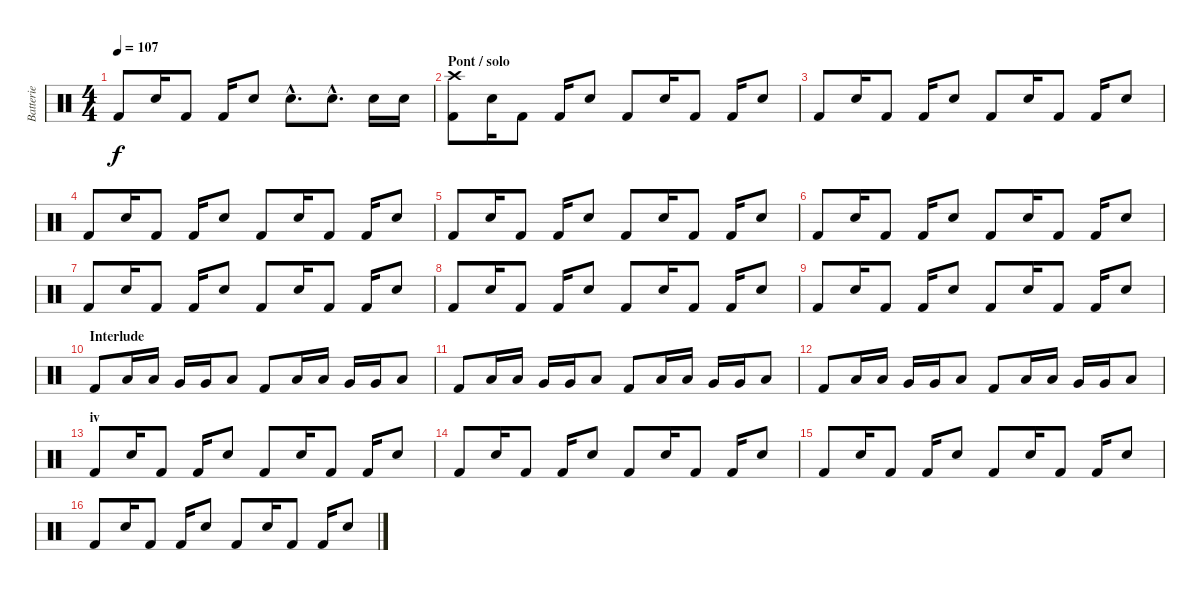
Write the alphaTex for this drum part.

\track ("Batterie" "Batterie") {instrument percussion}
\staff {score}
\articulation defaults
\ts (4 4)
\tempo 107
\clef neutral
\ks c "Kick (hit) 2".8{dy f} "Electric Snare (hit)".16 "Kick (hit) 2".8 "Kick (hit) 2".16 "Electric Snare (hit)".8 "Electric Snare (hit)"{hac}.8{d} "Electric Snare (hit)"{hac}.8{d} "Electric Snare (hit)".16 "Electric Snare (hit)".16
|
\section ("" "Pont / solo")
("Crash high (hit)" "Kick (hit) 2").8 "Electric Snare (hit)".16 "Kick (hit) 2".8 "Kick (hit) 2".16 "Electric Snare (hit)".8 "Kick (hit) 2".8 "Electric Snare (hit)".16 "Kick (hit) 2".8 "Kick (hit) 2".16 "Electric Snare (hit)".8 |
"Kick (hit) 2".8 "Electric Snare (hit)".16 "Kick (hit) 2".8 "Kick (hit) 2".16 "Electric Snare (hit)".8 "Kick (hit) 2".8 "Electric Snare (hit)".16 "Kick (hit) 2".8 "Kick (hit) 2".16 "Electric Snare (hit)".8 |
"Kick (hit) 2".8 "Electric Snare (hit)".16 "Kick (hit) 2".8 "Kick (hit) 2".16 "Electric Snare (hit)".8 "Kick (hit) 2".8 "Electric Snare (hit)".16 "Kick (hit) 2".8 "Kick (hit) 2".16 "Electric Snare (hit)".8 |
"Kick (hit) 2".8 "Electric Snare (hit)".16 "Kick (hit) 2".8 "Kick (hit) 2".16 "Electric Snare (hit)".8 "Kick (hit) 2".8 "Electric Snare (hit)".16 "Kick (hit) 2".8 "Kick (hit) 2".16 "Electric Snare (hit)".8 |
"Kick (hit) 2".8 "Electric Snare (hit)".16 "Kick (hit) 2".8 "Kick (hit) 2".16 "Electric Snare (hit)".8 "Kick (hit) 2".8 "Electric Snare (hit)".16 "Kick (hit) 2".8 "Kick (hit) 2".16 "Electric Snare (hit)".8 |
"Kick (hit) 2".8 "Electric Snare (hit)".16 "Kick (hit) 2".8 "Kick (hit) 2".16 "Electric Snare (hit)".8 "Kick (hit) 2".8 "Electric Snare (hit)".16 "Kick (hit) 2".8 "Kick (hit) 2".16 "Electric Snare (hit)".8 |
"Kick (hit) 2".8 "Electric Snare (hit)".16 "Kick (hit) 2".8 "Kick (hit) 2".16 "Electric Snare (hit)".8 "Kick (hit) 2".8 "Electric Snare (hit)".16 "Kick (hit) 2".8 "Kick (hit) 2".16 "Electric Snare (hit)".8 |
"Kick (hit) 2".8 "Electric Snare (hit)".16 "Kick (hit) 2".8 "Kick (hit) 2".16 "Electric Snare (hit)".8 "Kick (hit) 2".8 "Electric Snare (hit)".16 "Kick (hit) 2".8 "Kick (hit) 2".16 "Electric Snare (hit)".8 |
\section ("" "Interlude")
"Kick (hit) 2".8 "Low Tom (hit)".16 "Low Tom (hit)".16 "Very Low Tom (hit)".16 "Very Low Tom (hit)".16 "Low Tom (hit)".8 "Kick (hit) 2".8 "Low Tom (hit)".16 "Low Tom (hit)".16 "Very Low Tom (hit)".16 "Very Low Tom (hit)".16 "Low Tom (hit)".8 |
"Kick (hit) 2".8 "Low Tom (hit)".16 "Low Tom (hit)".16 "Very Low Tom (hit)".16 "Very Low Tom (hit)".16 "Low Tom (hit)".8 "Kick (hit) 2".8 "Low Tom (hit)".16 "Low Tom (hit)".16 "Very Low Tom (hit)".16 "Very Low Tom (hit)".16 "Low Tom (hit)".8 |
"Kick (hit) 2".8 "Low Tom (hit)".16 "Low Tom (hit)".16 "Very Low Tom (hit)".16 "Very Low Tom (hit)".16 "Low Tom (hit)".8 "Kick (hit) 2".8 "Low Tom (hit)".16 "Low Tom (hit)".16 "Very Low Tom (hit)".16 "Very Low Tom (hit)".16 "Low Tom (hit)".8 |
\section ("" "iv")
"Kick (hit) 2".8 "Electric Snare (hit)".16 "Kick (hit) 2".8 "Kick (hit) 2".16 "Electric Snare (hit)".8 "Kick (hit) 2".8 "Electric Snare (hit)".16 "Kick (hit) 2".8 "Kick (hit) 2".16 "Electric Snare (hit)".8 |
"Kick (hit) 2".8 "Electric Snare (hit)".16 "Kick (hit) 2".8 "Kick (hit) 2".16 "Electric Snare (hit)".8 "Kick (hit) 2".8 "Electric Snare (hit)".16 "Kick (hit) 2".8 "Kick (hit) 2".16 "Electric Snare (hit)".8 |
"Kick (hit) 2".8 "Electric Snare (hit)".16 "Kick (hit) 2".8 "Kick (hit) 2".16 "Electric Snare (hit)".8 "Kick (hit) 2".8 "Electric Snare (hit)".16 "Kick (hit) 2".8 "Kick (hit) 2".16 "Electric Snare (hit)".8 |
"Kick (hit) 2".8 "Electric Snare (hit)".16 "Kick (hit) 2".8 "Kick (hit) 2".16 "Electric Snare (hit)".8 "Kick (hit) 2".8 "Electric Snare (hit)".16 "Kick (hit) 2".8 "Kick (hit) 2".16 "Electric Snare (hit)".8
